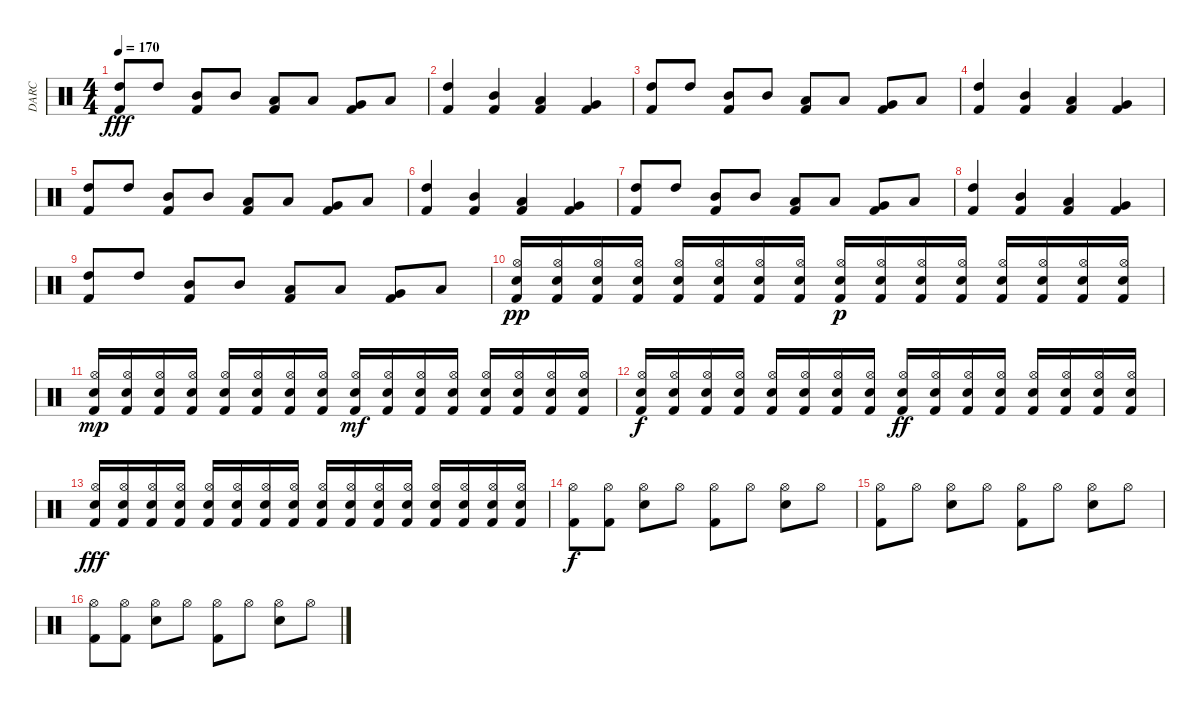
\track ("DARC" "DARC") {instrument percussion}
\staff {score}
\articulation defaults
\ts (4 4)
\tempo 170
\clef neutral
\ks c
("Kick (hit) 2" "High Tom (hit)").8{dy fff} "High Tom (hit)".8 ("Kick (hit) 2" "Mid Tom (hit)").8 "Mid Tom (hit)".8 ("Kick (hit) 2" "Low Tom (hit)").8 "Low Tom (hit)".8 ("Kick (hit) 2" "Very Low Tom (hit)").8 "Low Floor Tom (hit)".8 |
("Kick (hit) 2" "High Tom (hit)").4 ("Kick (hit) 2" "Mid Tom (hit)").4 ("Kick (hit) 2" "Low Tom (hit)").4 ("Kick (hit) 2" "Very Low Tom (hit)").4 |
("Kick (hit) 2" "High Tom (hit)").8 "High Tom (hit)".8 ("Kick (hit) 2" "Mid Tom (hit)").8 "Mid Tom (hit)".8 ("Kick (hit) 2" "Low Tom (hit)").8 "Low Tom (hit)".8 ("Kick (hit) 2" "Very Low Tom (hit)").8 "Low Floor Tom (hit)".8 |
("Kick (hit) 2" "High Tom (hit)").4 ("Kick (hit) 2" "Mid Tom (hit)").4 ("Kick (hit) 2" "Low Tom (hit)").4 ("Kick (hit) 2" "Very Low Tom (hit)").4 |
("Kick (hit) 2" "High Tom (hit)").8 "High Tom (hit)".8 ("Kick (hit) 2" "Mid Tom (hit)").8 "Mid Tom (hit)".8 ("Kick (hit) 2" "Low Tom (hit)").8 "Low Tom (hit)".8 ("Kick (hit) 2" "Very Low Tom (hit)").8 "Low Floor Tom (hit)".8 |
("Kick (hit) 2" "High Tom (hit)").4 ("Kick (hit) 2" "Mid Tom (hit)").4 ("Kick (hit) 2" "Low Tom (hit)").4 ("Kick (hit) 2" "Very Low Tom (hit)").4 |
("Kick (hit) 2" "High Tom (hit)").8 "High Tom (hit)".8 ("Kick (hit) 2" "Mid Tom (hit)").8 "Mid Tom (hit)".8 ("Kick (hit) 2" "Low Tom (hit)").8 "Low Tom (hit)".8 ("Kick (hit) 2" "Very Low Tom (hit)").8 "Low Floor Tom (hit)".8 |
("Kick (hit) 2" "High Tom (hit)").4 ("Kick (hit) 2" "Mid Tom (hit)").4 ("Kick (hit) 2" "Low Tom (hit)").4 ("Kick (hit) 2" "Very Low Tom (hit)").4 |
("Kick (hit) 2" "High Tom (hit)").8 "High Tom (hit)".8 ("Kick (hit) 2" "Mid Tom (hit)").8 "Mid Tom (hit)".8 ("Kick (hit) 2" "Low Tom (hit)").8 "Low Tom (hit)".8 ("Kick (hit) 2" "Very Low Tom (hit)").8 "Low Floor Tom (hit)".8 |
("Hi-Hat (open)" "Kick (hit) 2" "Electric Snare (hit)").16{dy pp} ("Hi-Hat (open)" "Kick (hit) 2" "Electric Snare (hit)").16 ("Hi-Hat (open)" "Kick (hit) 2" "Electric Snare (hit)").16 ("Hi-Hat (open)" "Kick (hit) 2" "Electric Snare (hit)").16 ("Hi-Hat (open)" "Kick (hit) 2" "Electric Snare (hit)").16 ("Hi-Hat (open)" "Kick (hit) 2" "Electric Snare (hit)").16 ("Hi-Hat (open)" "Kick (hit) 2" "Electric Snare (hit)").16 ("Hi-Hat (open)" "Kick (hit) 2" "Electric Snare (hit)").16 ("Hi-Hat (open)" "Kick (hit) 2" "Electric Snare (hit)").16{dy p} ("Hi-Hat (open)" "Kick (hit) 2" "Electric Snare (hit)").16 ("Hi-Hat (open)" "Kick (hit) 2" "Electric Snare (hit)").16 ("Hi-Hat (open)" "Kick (hit) 2" "Electric Snare (hit)").16 ("Hi-Hat (open)" "Kick (hit) 2" "Electric Snare (hit)").16 ("Hi-Hat (open)" "Kick (hit) 2" "Electric Snare (hit)").16 ("Hi-Hat (open)" "Kick (hit) 2" "Electric Snare (hit)").16 ("Hi-Hat (open)" "Kick (hit) 2" "Electric Snare (hit)").16 |
("Hi-Hat (open)" "Kick (hit) 2" "Electric Snare (hit)").16{dy mp} ("Hi-Hat (open)" "Kick (hit) 2" "Electric Snare (hit)").16 ("Hi-Hat (open)" "Kick (hit) 2" "Electric Snare (hit)").16 ("Hi-Hat (open)" "Kick (hit) 2" "Electric Snare (hit)").16 ("Hi-Hat (open)" "Kick (hit) 2" "Electric Snare (hit)").16 ("Hi-Hat (open)" "Kick (hit) 2" "Electric Snare (hit)").16 ("Hi-Hat (open)" "Kick (hit) 2" "Electric Snare (hit)").16 ("Hi-Hat (open)" "Kick (hit) 2" "Electric Snare (hit)").16 ("Hi-Hat (open)" "Kick (hit) 2" "Electric Snare (hit)").16{dy mf} ("Hi-Hat (open)" "Kick (hit) 2" "Electric Snare (hit)").16 ("Hi-Hat (open)" "Kick (hit) 2" "Electric Snare (hit)").16 ("Hi-Hat (open)" "Kick (hit) 2" "Electric Snare (hit)").16 ("Hi-Hat (open)" "Kick (hit) 2" "Electric Snare (hit)").16 ("Hi-Hat (open)" "Kick (hit) 2" "Electric Snare (hit)").16 ("Hi-Hat (open)" "Kick (hit) 2" "Electric Snare (hit)").16 ("Hi-Hat (open)" "Kick (hit) 2" "Electric Snare (hit)").16 |
("Hi-Hat (open)" "Kick (hit) 2" "Electric Snare (hit)").16{dy f} ("Hi-Hat (open)" "Kick (hit) 2" "Electric Snare (hit)").16 ("Hi-Hat (open)" "Kick (hit) 2" "Electric Snare (hit)").16 ("Hi-Hat (open)" "Kick (hit) 2" "Electric Snare (hit)").16 ("Hi-Hat (open)" "Kick (hit) 2" "Electric Snare (hit)").16 ("Hi-Hat (open)" "Kick (hit) 2" "Electric Snare (hit)").16 ("Hi-Hat (open)" "Kick (hit) 2" "Electric Snare (hit)").16 ("Hi-Hat (open)" "Kick (hit) 2" "Electric Snare (hit)").16 ("Hi-Hat (open)" "Kick (hit) 2" "Electric Snare (hit)").16{dy ff} ("Hi-Hat (open)" "Kick (hit) 2" "Electric Snare (hit)").16 ("Hi-Hat (open)" "Kick (hit) 2" "Electric Snare (hit)").16 ("Hi-Hat (open)" "Kick (hit) 2" "Electric Snare (hit)").16 ("Hi-Hat (open)" "Kick (hit) 2" "Electric Snare (hit)").16 ("Hi-Hat (open)" "Kick (hit) 2" "Electric Snare (hit)").16 ("Hi-Hat (open)" "Kick (hit) 2" "Electric Snare (hit)").16 ("Hi-Hat (open)" "Kick (hit) 2" "Electric Snare (hit)").16 |
("Hi-Hat (open)" "Kick (hit) 2" "Electric Snare (hit)").16{dy fff} ("Hi-Hat (open)" "Kick (hit) 2" "Electric Snare (hit)").16 ("Hi-Hat (open)" "Kick (hit) 2" "Electric Snare (hit)").16 ("Hi-Hat (open)" "Kick (hit) 2" "Electric Snare (hit)").16 ("Hi-Hat (open)" "Kick (hit) 2" "Electric Snare (hit)").16 ("Hi-Hat (open)" "Kick (hit) 2" "Electric Snare (hit)").16 ("Hi-Hat (open)" "Kick (hit) 2" "Electric Snare (hit)").16 ("Hi-Hat (open)" "Kick (hit) 2" "Electric Snare (hit)").16 ("Hi-Hat (open)" "Kick (hit) 2" "Electric Snare (hit)").16 ("Hi-Hat (open)" "Kick (hit) 2" "Electric Snare (hit)").16 ("Hi-Hat (open)" "Kick (hit) 2" "Electric Snare (hit)").16 ("Hi-Hat (open)" "Kick (hit) 2" "Electric Snare (hit)").16 ("Hi-Hat (open)" "Kick (hit) 2" "Electric Snare (hit)").16 ("Hi-Hat (open)" "Kick (hit) 2" "Electric Snare (hit)").16 ("Hi-Hat (open)" "Kick (hit) 2" "Electric Snare (hit)").16 ("Hi-Hat (open)" "Kick (hit) 2" "Electric Snare (hit)").16 |
("Hi-Hat (open)" "Kick (hit) 2").8{dy f} ("Hi-Hat (open)" "Kick (hit) 2").8 ("Hi-Hat (open)" "Electric Snare (hit)").8 "Hi-Hat (open)".8 ("Hi-Hat (open)" "Kick (hit) 2").8 "Hi-Hat (open)".8 ("Hi-Hat (open)" "Electric Snare (hit)").8 "Hi-Hat (open)".8 |
("Hi-Hat (open)" "Kick (hit) 2").8 "Hi-Hat (open)".8 ("Hi-Hat (open)" "Electric Snare (hit)").8 "Hi-Hat (open)".8 ("Hi-Hat (open)" "Kick (hit) 2").8 "Hi-Hat (open)".8 ("Hi-Hat (open)" "Electric Snare (hit)").8 "Hi-Hat (open)".8 |
("Hi-Hat (open)" "Kick (hit) 2").8 ("Hi-Hat (open)" "Kick (hit) 2").8 ("Hi-Hat (open)" "Electric Snare (hit)").8 "Hi-Hat (open)".8 ("Hi-Hat (open)" "Kick (hit) 2").8 "Hi-Hat (open)".8 ("Hi-Hat (open)" "Electric Snare (hit)").8 "Hi-Hat (open)".8
